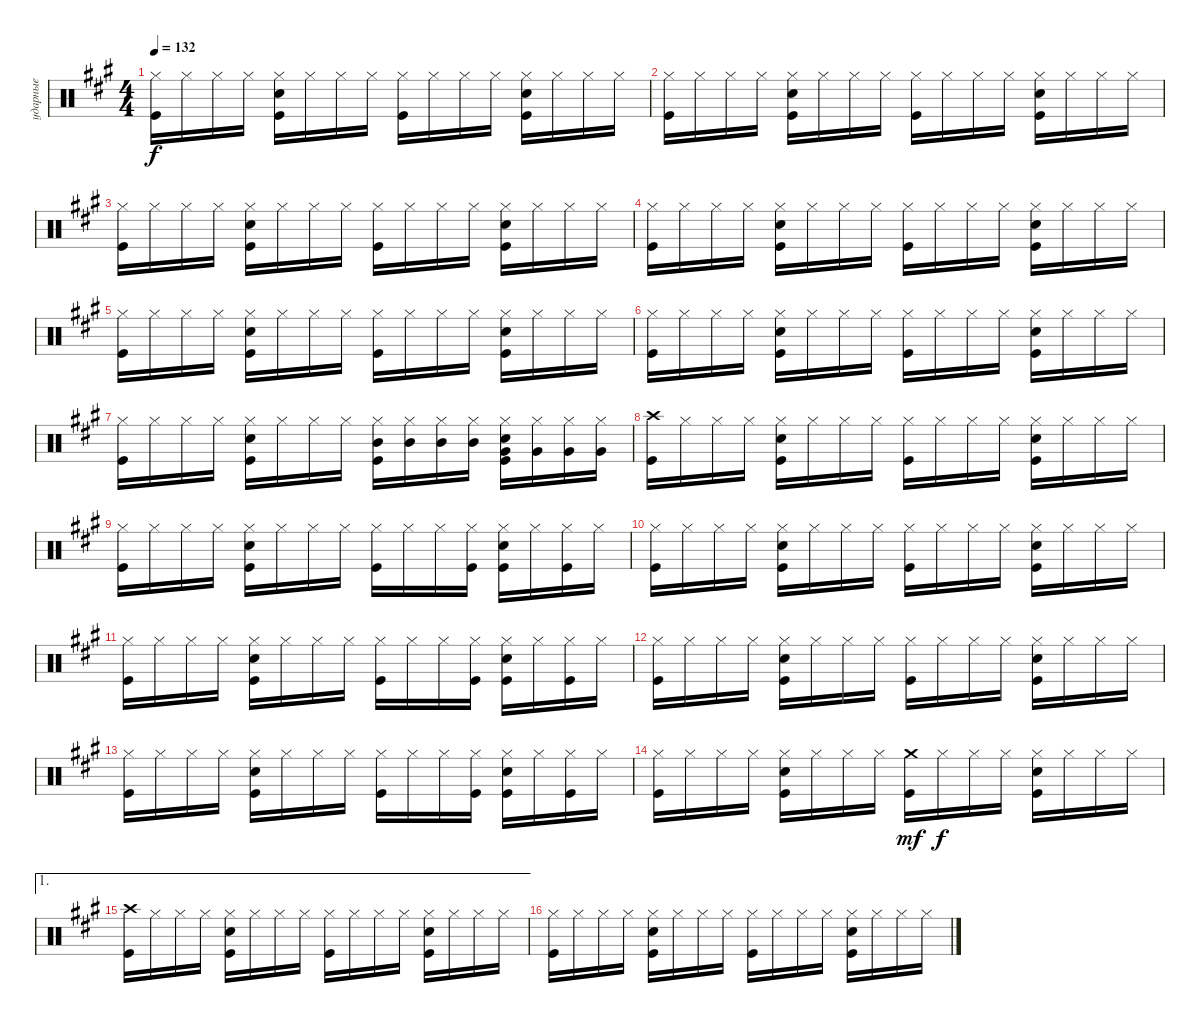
\track ("ударные" "ударные") {instrument percussion}
\staff {score}
\articulation defaults
\ts (4 4)
\tempo 132
\clef neutral
\ks f#minor
("Hi-Hat (closed)" "Kick (hit)").16{dy f} "Hi-Hat (closed)".16 "Hi-Hat (closed)".16 "Hi-Hat (closed)".16 ("Hi-Hat (closed)" "Snare (hit) 2" "Kick (hit)").16 "Hi-Hat (closed)".16 "Hi-Hat (closed)".16 "Hi-Hat (closed)".16 ("Hi-Hat (closed)" "Kick (hit)").16 "Hi-Hat (closed)".16 "Hi-Hat (closed)".16 "Hi-Hat (closed)".16 ("Hi-Hat (closed)" "Snare (hit) 2" "Kick (hit)").16 "Hi-Hat (closed)".16 "Hi-Hat (closed)".16 "Hi-Hat (closed)".16 |
("Hi-Hat (closed)" "Kick (hit)").16 "Hi-Hat (closed)".16 "Hi-Hat (closed)".16 "Hi-Hat (closed)".16 ("Hi-Hat (closed)" "Snare (hit) 2" "Kick (hit)").16 "Hi-Hat (closed)".16 "Hi-Hat (closed)".16 "Hi-Hat (closed)".16 ("Hi-Hat (closed)" "Kick (hit)").16 "Hi-Hat (closed)".16 "Hi-Hat (closed)".16 "Hi-Hat (closed)".16 ("Hi-Hat (closed)" "Snare (hit) 2" "Kick (hit)").16 "Hi-Hat (closed)".16 "Hi-Hat (closed)".16 "Hi-Hat (closed)".16 |
("Hi-Hat (closed)" "Kick (hit)").16 "Hi-Hat (closed)".16 "Hi-Hat (closed)".16 "Hi-Hat (closed)".16 ("Hi-Hat (closed)" "Snare (hit) 2" "Kick (hit)").16 "Hi-Hat (closed)".16 "Hi-Hat (closed)".16 "Hi-Hat (closed)".16 ("Hi-Hat (closed)" "Kick (hit)").16 "Hi-Hat (closed)".16 "Hi-Hat (closed)".16 "Hi-Hat (closed)".16 ("Hi-Hat (closed)" "Snare (hit) 2" "Kick (hit)").16 "Hi-Hat (closed)".16 "Hi-Hat (closed)".16 "Hi-Hat (closed)".16 |
("Hi-Hat (closed)" "Kick (hit)").16 "Hi-Hat (closed)".16 "Hi-Hat (closed)".16 "Hi-Hat (closed)".16 ("Hi-Hat (closed)" "Snare (hit) 2" "Kick (hit)").16 "Hi-Hat (closed)".16 "Hi-Hat (closed)".16 "Hi-Hat (closed)".16 ("Hi-Hat (closed)" "Kick (hit)").16 "Hi-Hat (closed)".16 "Hi-Hat (closed)".16 "Hi-Hat (closed)".16 ("Hi-Hat (closed)" "Snare (hit) 2" "Kick (hit)").16 "Hi-Hat (closed)".16 "Hi-Hat (closed)".16 "Hi-Hat (closed)".16 |
("Hi-Hat (closed)" "Kick (hit)").16 "Hi-Hat (closed)".16 "Hi-Hat (closed)".16 "Hi-Hat (closed)".16 ("Hi-Hat (closed)" "Snare (hit) 2" "Kick (hit)").16 "Hi-Hat (closed)".16 "Hi-Hat (closed)".16 "Hi-Hat (closed)".16 ("Hi-Hat (closed)" "Kick (hit)").16 "Hi-Hat (closed)".16 "Hi-Hat (closed)".16 "Hi-Hat (closed)".16 ("Hi-Hat (closed)" "Snare (hit) 2" "Kick (hit)").16 "Hi-Hat (closed)".16 "Hi-Hat (closed)".16 "Hi-Hat (closed)".16 |
("Hi-Hat (closed)" "Kick (hit)").16 "Hi-Hat (closed)".16 "Hi-Hat (closed)".16 "Hi-Hat (closed)".16 ("Hi-Hat (closed)" "Snare (hit) 2" "Kick (hit)").16 "Hi-Hat (closed)".16 "Hi-Hat (closed)".16 "Hi-Hat (closed)".16 ("Hi-Hat (closed)" "Kick (hit)").16 "Hi-Hat (closed)".16 "Hi-Hat (closed)".16 "Hi-Hat (closed)".16 ("Hi-Hat (closed)" "Snare (hit) 2" "Kick (hit)").16 "Hi-Hat (closed)".16 "Hi-Hat (closed)".16 "Hi-Hat (closed)".16 |
("Hi-Hat (closed)" "Kick (hit)").16 "Hi-Hat (closed)".16 "Hi-Hat (closed)".16 "Hi-Hat (closed)".16 ("Hi-Hat (closed)" "Snare (hit) 2" "Kick (hit)").16 "Hi-Hat (closed)".16 "Hi-Hat (closed)".16 "Hi-Hat (closed)".16 ("Mid Tom (hit)" "Hi-Hat (closed)" "Kick (hit)").16 ("Mid Tom (hit)" "Hi-Hat (closed)").16 ("Mid Tom (hit)" "Hi-Hat (closed)").16 ("Mid Tom (hit)" "Hi-Hat (closed)").16 ("Very Low Tom (hit)" "Hi-Hat (closed)" "Snare (hit) 2" "Kick (hit)").16 ("Very Low Tom (hit)" "Hi-Hat (closed)").16 ("Very Low Tom (hit)" "Hi-Hat (closed)").16 ("Very Low Tom (hit)" "Hi-Hat (closed)").16 |
("Kick (hit)" "Crash high (hit)").16 "Hi-Hat (closed)".16 "Hi-Hat (closed)".16 "Hi-Hat (closed)".16 ("Hi-Hat (closed)" "Snare (hit) 2" "Kick (hit)").16 "Hi-Hat (closed)".16 "Hi-Hat (closed)".16 "Hi-Hat (closed)".16 ("Hi-Hat (closed)" "Kick (hit)").16 "Hi-Hat (closed)".16 "Hi-Hat (closed)".16 "Hi-Hat (closed)".16 ("Hi-Hat (closed)" "Snare (hit) 2" "Kick (hit)").16 "Hi-Hat (closed)".16 "Hi-Hat (closed)".16 "Hi-Hat (closed)".16 |
("Hi-Hat (closed)" "Kick (hit)").16 "Hi-Hat (closed)".16 "Hi-Hat (closed)".16 "Hi-Hat (closed)".16 ("Hi-Hat (closed)" "Snare (hit) 2" "Kick (hit)").16 "Hi-Hat (closed)".16 "Hi-Hat (closed)".16 "Hi-Hat (closed)".16 ("Hi-Hat (closed)" "Kick (hit)").16 "Hi-Hat (closed)".16 "Hi-Hat (closed)".16 ("Hi-Hat (closed)" "Kick (hit)").16 ("Hi-Hat (closed)" "Snare (hit) 2" "Kick (hit)").16 "Hi-Hat (closed)".16 ("Hi-Hat (closed)" "Kick (hit)").16 "Hi-Hat (closed)".16 |
("Hi-Hat (closed)" "Kick (hit)").16 "Hi-Hat (closed)".16 "Hi-Hat (closed)".16 "Hi-Hat (closed)".16 ("Hi-Hat (closed)" "Snare (hit) 2" "Kick (hit)").16 "Hi-Hat (closed)".16 "Hi-Hat (closed)".16 "Hi-Hat (closed)".16 ("Hi-Hat (closed)" "Kick (hit)").16 "Hi-Hat (closed)".16 "Hi-Hat (closed)".16 "Hi-Hat (closed)".16 ("Hi-Hat (closed)" "Snare (hit) 2" "Kick (hit)").16 "Hi-Hat (closed)".16 "Hi-Hat (closed)".16 "Hi-Hat (closed)".16 |
("Hi-Hat (closed)" "Kick (hit)").16 "Hi-Hat (closed)".16 "Hi-Hat (closed)".16 "Hi-Hat (closed)".16 ("Hi-Hat (closed)" "Snare (hit) 2" "Kick (hit)").16 "Hi-Hat (closed)".16 "Hi-Hat (closed)".16 "Hi-Hat (closed)".16 ("Hi-Hat (closed)" "Kick (hit)").16 "Hi-Hat (closed)".16 "Hi-Hat (closed)".16 ("Hi-Hat (closed)" "Kick (hit)").16 ("Hi-Hat (closed)" "Snare (hit) 2" "Kick (hit)").16 "Hi-Hat (closed)".16 ("Hi-Hat (closed)" "Kick (hit)").16 "Hi-Hat (closed)".16 |
("Hi-Hat (closed)" "Kick (hit)").16 "Hi-Hat (closed)".16 "Hi-Hat (closed)".16 "Hi-Hat (closed)".16 ("Hi-Hat (closed)" "Snare (hit) 2" "Kick (hit)").16 "Hi-Hat (closed)".16 "Hi-Hat (closed)".16 "Hi-Hat (closed)".16 ("Hi-Hat (closed)" "Kick (hit)").16 "Hi-Hat (closed)".16 "Hi-Hat (closed)".16 "Hi-Hat (closed)".16 ("Hi-Hat (closed)" "Snare (hit) 2" "Kick (hit)").16 "Hi-Hat (closed)".16 "Hi-Hat (closed)".16 "Hi-Hat (closed)".16 |
("Hi-Hat (closed)" "Kick (hit)").16 "Hi-Hat (closed)".16 "Hi-Hat (closed)".16 "Hi-Hat (closed)".16 ("Hi-Hat (closed)" "Snare (hit) 2" "Kick (hit)").16 "Hi-Hat (closed)".16 "Hi-Hat (closed)".16 "Hi-Hat (closed)".16 ("Hi-Hat (closed)" "Kick (hit)").16 "Hi-Hat (closed)".16 "Hi-Hat (closed)".16 ("Hi-Hat (closed)" "Kick (hit)").16 ("Hi-Hat (closed)" "Snare (hit) 2" "Kick (hit)").16 "Hi-Hat (closed)".16 ("Hi-Hat (closed)" "Kick (hit)").16 "Hi-Hat (closed)".16 |
("Hi-Hat (closed)" "Kick (hit)").16 "Hi-Hat (closed)".16 "Hi-Hat (closed)".16 "Hi-Hat (closed)".16 ("Hi-Hat (closed)" "Snare (hit) 2" "Kick (hit)").16 "Hi-Hat (closed)".16 "Hi-Hat (closed)".16 "Hi-Hat (closed)".16 ("Crash medium (hit)" "Kick (hit)").16{dy mf} "Hi-Hat (closed)".16{dy f} "Hi-Hat (closed)".16 "Hi-Hat (closed)".16 ("Hi-Hat (closed)" "Snare (hit) 2" "Kick (hit)").16 "Hi-Hat (closed)".16 "Hi-Hat (closed)".16 "Hi-Hat (closed)".16 |
\ae 1
("Kick (hit)" "Crash high (hit)").16 "Hi-Hat (closed)".16 "Hi-Hat (closed)".16 "Hi-Hat (closed)".16 ("Hi-Hat (closed)" "Snare (hit) 2" "Kick (hit)").16 "Hi-Hat (closed)".16 "Hi-Hat (closed)".16 "Hi-Hat (closed)".16 ("Hi-Hat (closed)" "Kick (hit)").16 "Hi-Hat (closed)".16 "Hi-Hat (closed)".16 "Hi-Hat (closed)".16 ("Hi-Hat (closed)" "Snare (hit) 2" "Kick (hit)").16 "Hi-Hat (closed)".16 "Hi-Hat (closed)".16 "Hi-Hat (closed)".16 |
("Hi-Hat (closed)" "Kick (hit)").16 "Hi-Hat (closed)".16 "Hi-Hat (closed)".16 "Hi-Hat (closed)".16 ("Hi-Hat (closed)" "Snare (hit) 2" "Kick (hit)").16 "Hi-Hat (closed)".16 "Hi-Hat (closed)".16 "Hi-Hat (closed)".16 ("Hi-Hat (closed)" "Kick (hit)").16 "Hi-Hat (closed)".16 "Hi-Hat (closed)".16 "Hi-Hat (closed)".16 ("Hi-Hat (closed)" "Snare (hit) 2" "Kick (hit)").16 "Hi-Hat (closed)".16 "Hi-Hat (closed)".16 "Hi-Hat (closed)".16
